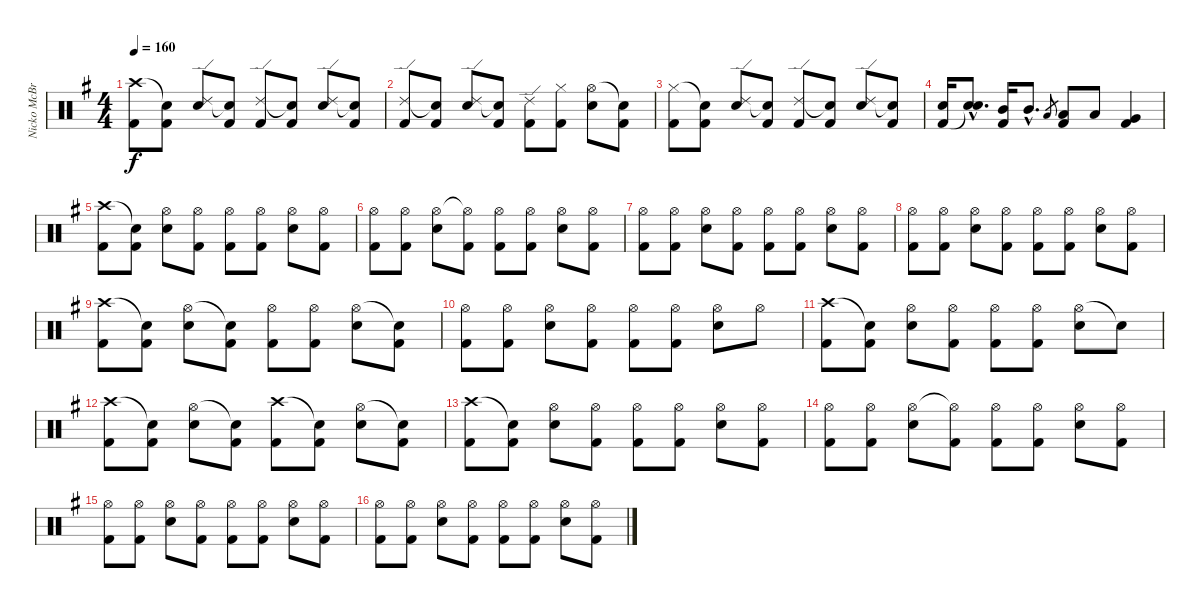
\track ("Nicko McBrain" "Nicko McBr") {instrument percussion}
\staff {score}
\articulation defaults
\ts (4 4)
\tempo 160
\clef neutral
\ks g
("Crash high (hit)" "Kick (hit) 2").8{dy f} ("Snare (hit)"{t} "Kick (hit) 2").8 ("Ride (edge) 2" "Electric Snare (hit)").8 ("Snare (hit)"{t} "Kick (hit) 2").8 ("Ride (edge) 2" "Kick (hit) 2").8 ("Snare (hit)"{t} "Kick (hit) 2").8 ("Ride (edge) 2" "Electric Snare (hit)").8 ("Snare (hit)"{t} "Kick (hit) 2").8 |
("Ride (edge) 2" "Kick (hit) 2").8 ("Snare (hit)"{t} "Kick (hit) 2").8 ("Ride (edge) 2" "Electric Snare (hit)").8 ("Snare (hit)"{t} "Kick (hit) 2").8 ("Ride (edge) 2" "Kick (hit) 2").8 ("Hi-Hat (closed)" "Kick (hit) 2").8 ("Hi-Hat (open)" "Electric Snare (hit)").8 ("Snare (hit)"{t} "Kick (hit) 2").8 |
("Hi-Hat (closed)" "Kick (hit) 2").8 ("Snare (hit)"{t} "Kick (hit) 2").8 ("Ride (edge) 2" "Electric Snare (hit)").8 ("Snare (hit)"{t} "Kick (hit) 2").8 ("Ride (edge) 2" "Kick (hit) 2").8 ("Snare (hit)"{t} "Kick (hit) 2").8 ("Ride (edge) 2" "Electric Snare (hit)").8 ("Snare (hit)"{t} "Kick (hit) 2").8 |
("Electric Snare (hit)" "Kick (hit) 2").16 ("Electric Snare (hit)"{hac} "Snare (hit)"{hac t}).8{d} ("Mid Tom (hit)" "Kick (hit) 2").16 "Mid Tom (hit)"{hac}.8{d} "Low Tom (hit)".8{gr} ("Low Tom (hit)" "Kick (hit) 2").8 "Low Tom (hit)".8 ("Very Low Tom (hit)" "Kick (hit) 2").4 |
("Crash high (hit)" "Kick (hit) 2").8 ("Snare (hit)"{t} "Kick (hit) 2").8 ("Hi-Hat (open)" "Electric Snare (hit)").8 ("Hi-Hat (open)" "Kick (hit) 2").8 ("Hi-Hat (open)" "Kick (hit) 2").8 ("Hi-Hat (open)" "Kick (hit) 2").8 ("Hi-Hat (open)" "Electric Snare (hit)").8 ("Hi-Hat (open)" "Kick (hit) 2").8 |
("Hi-Hat (open)" "Kick (hit) 2").8 ("Hi-Hat (open)" "Kick (hit) 2").8 ("Hi-Hat (open)" "Electric Snare (hit)").8 ("Hi-Hat (open)"{t} "Kick (hit) 2").8 ("Hi-Hat (open)" "Kick (hit) 2").8 ("Hi-Hat (open)" "Kick (hit) 2").8 ("Hi-Hat (open)" "Electric Snare (hit)").8 ("Hi-Hat (open)" "Kick (hit) 2").8 |
("Hi-Hat (open)" "Kick (hit) 2").8 ("Hi-Hat (open)" "Kick (hit) 2").8 ("Hi-Hat (open)" "Electric Snare (hit)").8 ("Hi-Hat (open)" "Kick (hit) 2").8 ("Hi-Hat (open)" "Kick (hit) 2").8 ("Hi-Hat (open)" "Kick (hit) 2").8 ("Hi-Hat (open)" "Electric Snare (hit)").8 ("Hi-Hat (open)" "Kick (hit) 2").8 |
("Hi-Hat (open)" "Kick (hit) 2").8 ("Hi-Hat (open)" "Kick (hit) 2").8 ("Hi-Hat (open)" "Electric Snare (hit)").8 ("Hi-Hat (open)" "Kick (hit) 2").8 ("Hi-Hat (open)" "Kick (hit) 2").8 ("Hi-Hat (open)" "Kick (hit) 2").8 ("Hi-Hat (open)" "Electric Snare (hit)").8 ("Hi-Hat (open)" "Kick (hit) 2").8 |
("Crash high (hit)" "Kick (hit) 2").8 ("Snare (hit)"{t} "Kick (hit) 2").8 ("Hi-Hat (open)" "Electric Snare (hit)").8 ("Snare (hit)"{t} "Kick (hit) 2").8 ("Hi-Hat (open)" "Kick (hit) 2").8 ("Hi-Hat (open)" "Kick (hit) 2").8 ("Hi-Hat (open)" "Electric Snare (hit)").8 ("Snare (hit)"{t} "Kick (hit) 2").8 |
("Hi-Hat (open)" "Kick (hit) 2").8 ("Hi-Hat (open)" "Kick (hit) 2").8 ("Hi-Hat (open)" "Electric Snare (hit)").8 ("Hi-Hat (open)" "Kick (hit) 2").8 ("Hi-Hat (open)" "Kick (hit) 2").8 ("Hi-Hat (open)" "Kick (hit) 2").8 ("Hi-Hat (open)" "Electric Snare (hit)").8 "Hi-Hat (open)".8 |
("Crash high (hit)" "Kick (hit) 2").8 ("Snare (hit)"{t} "Kick (hit) 2").8 ("Hi-Hat (open)" "Electric Snare (hit)").8 ("Hi-Hat (open)" "Kick (hit) 2").8 ("Hi-Hat (open)" "Kick (hit) 2").8 ("Hi-Hat (open)" "Kick (hit) 2").8 ("Hi-Hat (open)" "Electric Snare (hit)").8 "Snare (hit)"{t}.8 |
("Crash high (hit)" "Kick (hit) 2").8 ("Snare (hit)"{t} "Kick (hit) 2").8 ("Hi-Hat (open)" "Electric Snare (hit)").8 ("Snare (hit)"{t} "Kick (hit) 2").8 ("Crash high (hit)" "Kick (hit) 2").8 ("Snare (hit)"{t} "Kick (hit) 2").8 ("Hi-Hat (open)" "Electric Snare (hit)").8 ("Snare (hit)"{t} "Kick (hit) 2").8 |
("Crash high (hit)" "Kick (hit) 2").8 ("Snare (hit)"{t} "Kick (hit) 2").8 ("Hi-Hat (open)" "Electric Snare (hit)").8 ("Hi-Hat (open)" "Kick (hit) 2").8 ("Hi-Hat (open)" "Kick (hit) 2").8 ("Hi-Hat (open)" "Kick (hit) 2").8 ("Hi-Hat (open)" "Electric Snare (hit)").8 ("Hi-Hat (open)" "Kick (hit) 2").8 |
("Hi-Hat (open)" "Kick (hit) 2").8 ("Hi-Hat (open)" "Kick (hit) 2").8 ("Hi-Hat (open)" "Electric Snare (hit)").8 ("Hi-Hat (open)"{t} "Kick (hit) 2").8 ("Hi-Hat (open)" "Kick (hit) 2").8 ("Hi-Hat (open)" "Kick (hit) 2").8 ("Hi-Hat (open)" "Electric Snare (hit)").8 ("Hi-Hat (open)" "Kick (hit) 2").8 |
("Hi-Hat (open)" "Kick (hit) 2").8 ("Hi-Hat (open)" "Kick (hit) 2").8 ("Hi-Hat (open)" "Electric Snare (hit)").8 ("Hi-Hat (open)" "Kick (hit) 2").8 ("Hi-Hat (open)" "Kick (hit) 2").8 ("Hi-Hat (open)" "Kick (hit) 2").8 ("Hi-Hat (open)" "Electric Snare (hit)").8 ("Hi-Hat (open)" "Kick (hit) 2").8 |
("Hi-Hat (open)" "Kick (hit) 2").8 ("Hi-Hat (open)" "Kick (hit) 2").8 ("Hi-Hat (open)" "Electric Snare (hit)").8 ("Hi-Hat (open)" "Kick (hit) 2").8 ("Hi-Hat (open)" "Kick (hit) 2").8 ("Hi-Hat (open)" "Kick (hit) 2").8 ("Hi-Hat (open)" "Electric Snare (hit)").8 ("Hi-Hat (open)" "Kick (hit) 2").8
